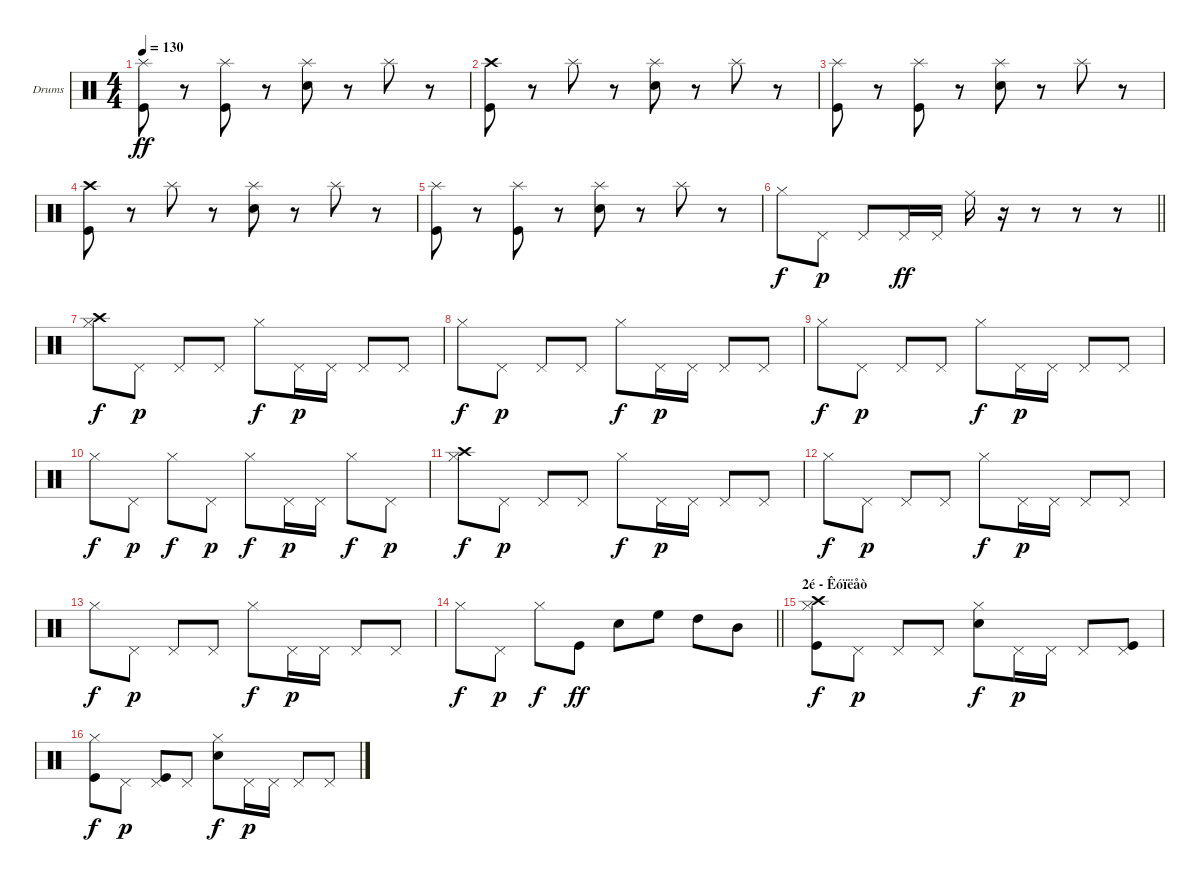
\bracketExtendMode groupsimilarinstruments
\firstSystemTrackNameOrientation horizontal
\otherSystemsTrackNameOrientation horizontal
\track ("Drumkit" "Drums") {instrument percussion}
\staff {score}
\articulation defaults
\ts (4 4)
\tempo 130
\clef neutral
\ks c
("Kick (hit)" "Splash (hit)").8{dy ff} r.8 ("Kick (hit)" "Splash (hit)").8 r.8 ("Snare (hit) 2" "Splash (hit)").8 r.8 "Splash (hit)".8 r.8 |
("Kick (hit)" "Crash high (hit)").8 r.8 "Splash (hit)".8 r.8 ("Snare (hit) 2" "Splash (hit)").8 r.8 "Splash (hit)".8 r.8 |
("Kick (hit)" "Splash (hit)").8 r.8 ("Kick (hit)" "Splash (hit)").8 r.8 ("Snare (hit) 2" "Splash (hit)").8 r.8 "Splash (hit)".8 r.8 |
("Kick (hit)" "Crash high (hit)").8 r.8 "Splash (hit)".8 r.8 ("Snare (hit) 2" "Splash (hit)").8 r.8 "Splash (hit)".8 r.8 |
("Kick (hit)" "Splash (hit)").8 r.8 ("Kick (hit)" "Splash (hit)").8 r.8 ("Snare (hit) 2" "Splash (hit)").8 r.8 "Splash (hit)".8 r.8 |
\barLineRight lightlight "Hi-Hat (closed)".8{dy f} "Pedal Hi-Hat (hit)".8{dy p} "Pedal Hi-Hat (hit)".8 "Pedal Hi-Hat (hit)".16{dy ff} "Pedal Hi-Hat (hit)".16 "Ride (middle)".16
r.16 r.8 r.8 r.8 |
\section ("" "")
("Hi-Hat (closed)" "Crash high (hit)").8{dy f} "Pedal Hi-Hat (hit)".8{dy p} "Pedal Hi-Hat (hit)".8 "Pedal Hi-Hat (hit)".8 "Hi-Hat (closed)".8{dy f} "Pedal Hi-Hat (hit)".16{dy p} "Pedal Hi-Hat (hit)".16 "Pedal Hi-Hat (hit)".8 "Pedal Hi-Hat (hit)".8 |
"Hi-Hat (closed)".8{dy f} "Pedal Hi-Hat (hit)".8{dy p} "Pedal Hi-Hat (hit)".8 "Pedal Hi-Hat (hit)".8 "Hi-Hat (closed)".8{dy f} "Pedal Hi-Hat (hit)".16{dy p} "Pedal Hi-Hat (hit)".16 "Pedal Hi-Hat (hit)".8 "Pedal Hi-Hat (hit)".8 |
"Hi-Hat (closed)".8{dy f} "Pedal Hi-Hat (hit)".8{dy p} "Pedal Hi-Hat (hit)".8 "Pedal Hi-Hat (hit)".8 "Hi-Hat (closed)".8{dy f} "Pedal Hi-Hat (hit)".16{dy p} "Pedal Hi-Hat (hit)".16 "Pedal Hi-Hat (hit)".8 "Pedal Hi-Hat (hit)".8 |
"Hi-Hat (closed)".8{dy f} "Pedal Hi-Hat (hit)".8{dy p} "Hi-Hat (closed)".8{dy f} "Pedal Hi-Hat (hit)".8{dy p} "Hi-Hat (closed)".8{dy f} "Pedal Hi-Hat (hit)".16{dy p} "Pedal Hi-Hat (hit)".16 "Hi-Hat (closed)".8{dy f} "Pedal Hi-Hat (hit)".8{dy p} |
("Hi-Hat (closed)" "Crash high (hit)").8{dy f} "Pedal Hi-Hat (hit)".8{dy p} "Pedal Hi-Hat (hit)".8 "Pedal Hi-Hat (hit)".8 "Hi-Hat (closed)".8{dy f} "Pedal Hi-Hat (hit)".16{dy p} "Pedal Hi-Hat (hit)".16 "Pedal Hi-Hat (hit)".8 "Pedal Hi-Hat (hit)".8 |
"Hi-Hat (closed)".8{dy f} "Pedal Hi-Hat (hit)".8{dy p} "Pedal Hi-Hat (hit)".8 "Pedal Hi-Hat (hit)".8 "Hi-Hat (closed)".8{dy f} "Pedal Hi-Hat (hit)".16{dy p} "Pedal Hi-Hat (hit)".16 "Pedal Hi-Hat (hit)".8 "Pedal Hi-Hat (hit)".8 |
"Hi-Hat (closed)".8{dy f} "Pedal Hi-Hat (hit)".8{dy p} "Pedal Hi-Hat (hit)".8 "Pedal Hi-Hat (hit)".8 "Hi-Hat (closed)".8{dy f} "Pedal Hi-Hat (hit)".16{dy p} "Pedal Hi-Hat (hit)".16 "Pedal Hi-Hat (hit)".8 "Pedal Hi-Hat (hit)".8 |
\barLineRight lightlight "Hi-Hat (closed)".8{dy f} "Pedal Hi-Hat (hit)".8{dy p} "Hi-Hat (closed)".8{dy f} "Kick (hit)".8{dy ff} "Snare (hit) 2".8 "High Floor Tom (hit)".8 "High Tom (hit)".8 "Mid Tom (hit)".8
|
\section ("" "2é - Êóïëåò")
("Hi-Hat (closed)" "Kick (hit)" "Crash high (hit)").8{dy f} "Pedal Hi-Hat (hit)".8{dy p} "Pedal Hi-Hat (hit)".8 "Pedal Hi-Hat (hit)".8 ("Snare (hit) 2" "Hi-Hat (closed)").8{dy f} "Pedal Hi-Hat (hit)".16{dy p} "Pedal Hi-Hat (hit)".16 "Pedal Hi-Hat (hit)".8 ("Pedal Hi-Hat (hit)" "Kick (hit)").8 |
("Kick (hit)" "Hi-Hat (closed)").8{dy f} "Pedal Hi-Hat (hit)".8{dy p} ("Pedal Hi-Hat (hit)" "Kick (hit)").8 "Pedal Hi-Hat (hit)".8 ("Snare (hit) 2" "Hi-Hat (closed)").8{dy f} "Pedal Hi-Hat (hit)".16{dy p} "Pedal Hi-Hat (hit)".16 "Pedal Hi-Hat (hit)".8 "Pedal Hi-Hat (hit)".8
